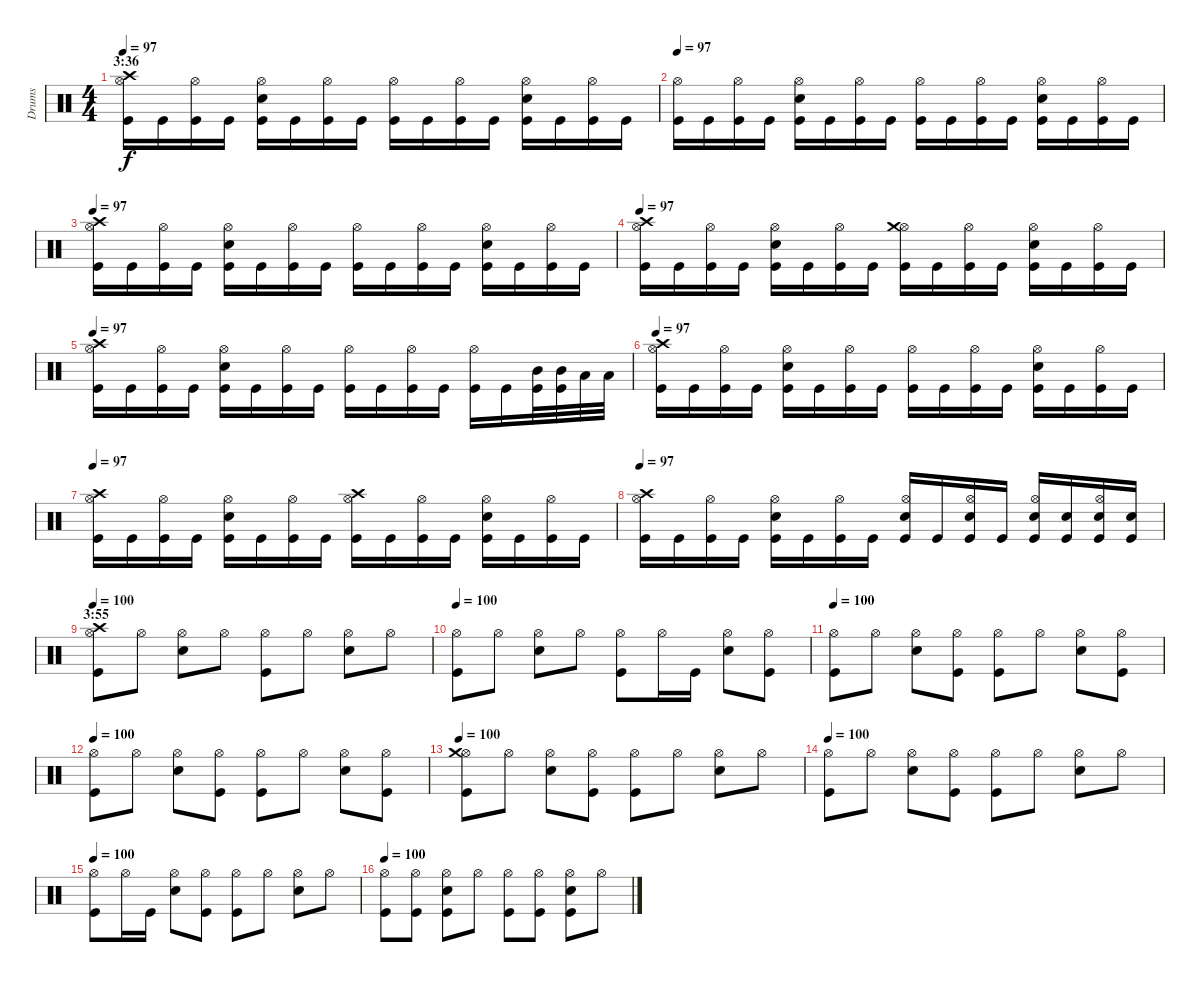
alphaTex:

\track ("Drums" "Drums") {instrument percussion}
\staff {score}
\articulation defaults
\ts (4 4)
\section ("" "3:36")
\tempo 100
\tempo 97
\clef neutral
\ks c
("Kick (hit)" "Hi-Hat (open)" "Crash high (hit)").16{dy f} "Kick (hit)".16 ("Kick (hit)" "Hi-Hat (open)").16 "Kick (hit)".16 ("Kick (hit)" "Electric Snare (hit)" "Hi-Hat (open)").16 "Kick (hit)".16 ("Kick (hit)" "Hi-Hat (open)").16 "Kick (hit)".16 ("Kick (hit)" "Hi-Hat (open)").16 "Kick (hit)".16 ("Kick (hit)" "Hi-Hat (open)").16 "Kick (hit)".16 ("Kick (hit)" "Electric Snare (hit)" "Hi-Hat (open)").16 "Kick (hit)".16 ("Kick (hit)" "Hi-Hat (open)").16 "Kick (hit)".16 |
\tempo 100
\tempo 97
("Kick (hit)" "Hi-Hat (open)").16 "Kick (hit)".16 ("Kick (hit)" "Hi-Hat (open)").16 "Kick (hit)".16 ("Kick (hit)" "Electric Snare (hit)" "Hi-Hat (open)").16 "Kick (hit)".16 ("Kick (hit)" "Hi-Hat (open)").16 "Kick (hit)".16 ("Kick (hit)" "Hi-Hat (open)").16 "Kick (hit)".16 ("Kick (hit)" "Hi-Hat (open)").16 "Kick (hit)".16 ("Kick (hit)" "Electric Snare (hit)" "Hi-Hat (open)").16 "Kick (hit)".16 ("Kick (hit)" "Hi-Hat (open)").16 "Kick (hit)".16 |
\tempo 100
\tempo 97
("Kick (hit)" "Hi-Hat (open)" "Crash high (hit)").16 "Kick (hit)".16 ("Kick (hit)" "Hi-Hat (open)").16 "Kick (hit)".16 ("Kick (hit)" "Electric Snare (hit)" "Hi-Hat (open)").16 "Kick (hit)".16 ("Kick (hit)" "Hi-Hat (open)").16 "Kick (hit)".16 ("Kick (hit)" "Hi-Hat (open)").16 "Kick (hit)".16 ("Kick (hit)" "Hi-Hat (open)").16 "Kick (hit)".16 ("Kick (hit)" "Electric Snare (hit)" "Hi-Hat (open)").16 "Kick (hit)".16 ("Kick (hit)" "Hi-Hat (open)").16 "Kick (hit)".16 |
\tempo 100
\tempo 97
("Kick (hit)" "Hi-Hat (open)" "Crash high (hit)").16 "Kick (hit)".16 ("Kick (hit)" "Hi-Hat (open)").16 "Kick (hit)".16 ("Kick (hit)" "Electric Snare (hit)" "Hi-Hat (open)").16 "Kick (hit)".16 ("Kick (hit)" "Hi-Hat (open)").16 "Kick (hit)".16 ("Kick (hit)" "Hi-Hat (open)" "Crash medium (hit)").16 "Kick (hit)".16 ("Kick (hit)" "Hi-Hat (open)").16 "Kick (hit)".16 ("Kick (hit)" "Electric Snare (hit)" "Hi-Hat (open)").16 "Kick (hit)".16 ("Kick (hit)" "Hi-Hat (open)").16 "Kick (hit)".16 |
\tempo 100
\tempo 97
("Kick (hit)" "Hi-Hat (open)" "Crash high (hit)").16 "Kick (hit)".16 ("Kick (hit)" "Hi-Hat (open)").16 "Kick (hit)".16 ("Kick (hit)" "Electric Snare (hit)" "Hi-Hat (open)").16 "Kick (hit)".16 ("Kick (hit)" "Hi-Hat (open)").16 "Kick (hit)".16 ("Kick (hit)" "Hi-Hat (open)").16 "Kick (hit)".16 ("Kick (hit)" "Hi-Hat (open)").16 "Kick (hit)".16 ("Kick (hit)" "Hi-Hat (open)").16 "Kick (hit)".16 ("Kick (hit)" "Mid Tom (hit)").32 ("Kick (hit)" "Mid Tom (hit)").32 "Low Tom (hit)".32 "Low Tom (hit)".32 |
\tempo 100
\tempo 97
("Kick (hit)" "Hi-Hat (open)" "Crash high (hit)").16 "Kick (hit)".16 ("Kick (hit)" "Hi-Hat (open)").16 "Kick (hit)".16 ("Kick (hit)" "Electric Snare (hit)" "Hi-Hat (open)").16 "Kick (hit)".16 ("Kick (hit)" "Hi-Hat (open)").16 "Kick (hit)".16 ("Kick (hit)" "Hi-Hat (open)").16 "Kick (hit)".16 ("Kick (hit)" "Hi-Hat (open)").16 "Kick (hit)".16 ("Kick (hit)" "Electric Snare (hit)" "Hi-Hat (open)").16 "Kick (hit)".16 ("Kick (hit)" "Hi-Hat (open)").16 "Kick (hit)".16 |
\tempo 97
("Kick (hit)" "Hi-Hat (open)" "Crash high (hit)").16 "Kick (hit)".16 ("Kick (hit)" "Hi-Hat (open)").16 "Kick (hit)".16 ("Kick (hit)" "Electric Snare (hit)" "Hi-Hat (open)").16 "Kick (hit)".16 ("Kick (hit)" "Hi-Hat (open)").16 "Kick (hit)".16 ("Kick (hit)" "Hi-Hat (open)" "Crash high (hit)").16 "Kick (hit)".16 ("Kick (hit)" "Hi-Hat (open)").16 "Kick (hit)".16 ("Kick (hit)" "Electric Snare (hit)" "Hi-Hat (open)").16 "Kick (hit)".16 ("Kick (hit)" "Hi-Hat (open)").16 "Kick (hit)".16 |
\tempo 97
("Kick (hit)" "Hi-Hat (open)" "Crash high (hit)").16 "Kick (hit)".16 ("Kick (hit)" "Hi-Hat (open)").16 "Kick (hit)".16 ("Kick (hit)" "Electric Snare (hit)" "Hi-Hat (open)").16 "Kick (hit)".16 ("Kick (hit)" "Hi-Hat (open)").16 "Kick (hit)".16 ("Kick (hit)" "Electric Snare (hit)" "Hi-Hat (open)").16 "Kick (hit)".16 ("Kick (hit)" "Electric Snare (hit)" "Hi-Hat (open)").16 "Kick (hit)".16 ("Kick (hit)" "Electric Snare (hit)" "Hi-Hat (open)").16 ("Kick (hit)" "Electric Snare (hit)").16 ("Kick (hit)" "Electric Snare (hit)" "Hi-Hat (open)").16 ("Kick (hit)" "Electric Snare (hit)").16 |
\section ("" "3:55")
\tempo 100
("Kick (hit)" "Hi-Hat (open)" "Crash high (hit)").8 "Hi-Hat (open)".8 ("Hi-Hat (open)" "Electric Snare (hit)").8 "Hi-Hat (open)".8 ("Kick (hit)" "Hi-Hat (open)").8 "Hi-Hat (open)".8 ("Hi-Hat (open)" "Electric Snare (hit)").8 "Hi-Hat (open)".8 |
\tempo 100
("Kick (hit)" "Hi-Hat (open)").8 "Hi-Hat (open)".8 ("Hi-Hat (open)" "Electric Snare (hit)").8 "Hi-Hat (open)".8 ("Kick (hit)" "Hi-Hat (open)").8 "Hi-Hat (open)".16 "Kick (hit)".16 ("Hi-Hat (open)" "Electric Snare (hit)").8 ("Kick (hit)" "Hi-Hat (open)").8 |
\tempo 100
("Kick (hit)" "Hi-Hat (open)").8 "Hi-Hat (open)".8 ("Hi-Hat (open)" "Electric Snare (hit)").8 ("Kick (hit)" "Hi-Hat (open)").8 ("Kick (hit)" "Hi-Hat (open)").8 "Hi-Hat (open)".8 ("Hi-Hat (open)" "Electric Snare (hit)").8 ("Kick (hit)" "Hi-Hat (open)").8 |
\tempo 100
("Kick (hit)" "Hi-Hat (open)").8 "Hi-Hat (open)".8 ("Hi-Hat (open)" "Electric Snare (hit)").8 ("Kick (hit)" "Hi-Hat (open)").8 ("Kick (hit)" "Hi-Hat (open)").8 "Hi-Hat (open)".8 ("Hi-Hat (open)" "Electric Snare (hit)").8 ("Kick (hit)" "Hi-Hat (open)").8 |
\tempo 100
("Kick (hit)" "Hi-Hat (open)" "Crash medium (hit)").8 "Hi-Hat (open)".8 ("Hi-Hat (open)" "Electric Snare (hit)").8 ("Kick (hit)" "Hi-Hat (open)").8 ("Kick (hit)" "Hi-Hat (open)").8 "Hi-Hat (open)".8 ("Hi-Hat (open)" "Electric Snare (hit)").8 "Hi-Hat (open)".8 |
\tempo 100
("Kick (hit)" "Hi-Hat (open)").8 "Hi-Hat (open)".8 ("Hi-Hat (open)" "Electric Snare (hit)").8 ("Kick (hit)" "Hi-Hat (open)").8 ("Kick (hit)" "Hi-Hat (open)").8 "Hi-Hat (open)".8 ("Hi-Hat (open)" "Electric Snare (hit)").8 "Hi-Hat (open)".8 |
\tempo 100
("Kick (hit)" "Hi-Hat (open)").8 "Hi-Hat (open)".16 "Kick (hit)".16 ("Hi-Hat (open)" "Electric Snare (hit)").8 ("Kick (hit)" "Hi-Hat (open)").8 ("Kick (hit)" "Hi-Hat (open)").8 "Hi-Hat (open)".8 ("Hi-Hat (open)" "Electric Snare (hit)").8 "Hi-Hat (open)".8 |
\tempo 100
("Kick (hit)" "Hi-Hat (open)").8 ("Kick (hit)" "Hi-Hat (open)").8 ("Kick (hit)" "Hi-Hat (open)" "Electric Snare (hit)").8 "Hi-Hat (open)".8 ("Kick (hit)" "Hi-Hat (open)").8 ("Kick (hit)" "Hi-Hat (open)").8 ("Kick (hit)" "Hi-Hat (open)" "Electric Snare (hit)").8 "Hi-Hat (open)".8
